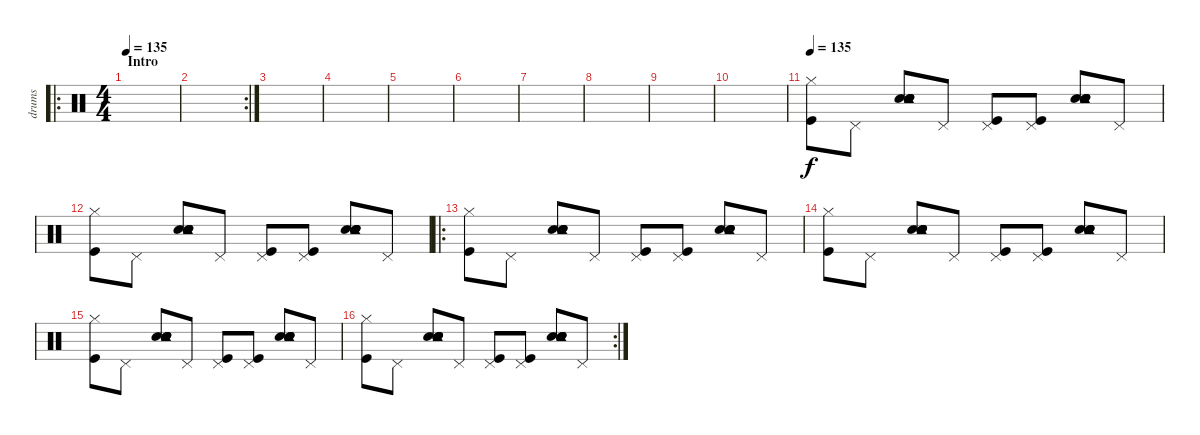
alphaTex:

\track ("drums" "drums") {instrument percussion}
\staff {score}
\articulation defaults
\ro
\ts (4 4)
\section ("" "Intro")
\tempo 135
\tempo 120
\tempo 135
\clef neutral
\ks c
|
\rc 2
|
|
|
|
|
|
|
|
|
\tempo 135
("Kick (hit)" "Hi-Hat (closed)").8{volume 6} "Pedal Hi-Hat (hit)".8 ("Snare (hit) 2" "Snare (hit) 2" "Electric Snare (hit)" "Electric Snare (hit)" "Tambourine (hit)").8 "Pedal Hi-Hat (hit)".8 ("Kick (hit)" "Pedal Hi-Hat (hit)").8 ("Kick (hit)" "Pedal Hi-Hat (hit)").8 ("Snare (hit) 2" "Snare (hit) 2" "Electric Snare (hit)" "Electric Snare (hit)" "Tambourine (hit)").8 "Pedal Hi-Hat (hit)".8 |
("Kick (hit)" "Hi-Hat (closed)").8 "Pedal Hi-Hat (hit)".8 ("Snare (hit) 2" "Snare (hit) 2" "Electric Snare (hit)" "Electric Snare (hit)" "Tambourine (hit)").8 "Pedal Hi-Hat (hit)".8 ("Kick (hit)" "Pedal Hi-Hat (hit)").8 ("Kick (hit)" "Pedal Hi-Hat (hit)").8 ("Snare (hit) 2" "Snare (hit) 2" "Electric Snare (hit)" "Electric Snare (hit)" "Tambourine (hit)").8 "Pedal Hi-Hat (hit)".8 |
\ro
("Kick (hit)" "Hi-Hat (closed)").8{volume 5} "Pedal Hi-Hat (hit)".8 ("Snare (hit) 2" "Snare (hit) 2" "Electric Snare (hit)" "Electric Snare (hit)" "Tambourine (hit)").8 "Pedal Hi-Hat (hit)".8 ("Kick (hit)" "Pedal Hi-Hat (hit)").8 ("Kick (hit)" "Pedal Hi-Hat (hit)").8 ("Snare (hit) 2" "Snare (hit) 2" "Electric Snare (hit)" "Electric Snare (hit)" "Tambourine (hit)").8 "Pedal Hi-Hat (hit)".8 |
("Kick (hit)" "Hi-Hat (closed)").8 "Pedal Hi-Hat (hit)".8 ("Snare (hit) 2" "Snare (hit) 2" "Electric Snare (hit)" "Electric Snare (hit)" "Tambourine (hit)").8 "Pedal Hi-Hat (hit)".8 ("Kick (hit)" "Pedal Hi-Hat (hit)").8 ("Kick (hit)" "Pedal Hi-Hat (hit)").8 ("Snare (hit) 2" "Snare (hit) 2" "Electric Snare (hit)" "Electric Snare (hit)" "Tambourine (hit)").8 "Pedal Hi-Hat (hit)".8 |
("Kick (hit)" "Hi-Hat (closed)").8 "Pedal Hi-Hat (hit)".8 ("Snare (hit) 2" "Snare (hit) 2" "Electric Snare (hit)" "Electric Snare (hit)" "Tambourine (hit)").8 "Pedal Hi-Hat (hit)".8 ("Kick (hit)" "Pedal Hi-Hat (hit)").8 ("Kick (hit)" "Pedal Hi-Hat (hit)").8 ("Snare (hit) 2" "Snare (hit) 2" "Electric Snare (hit)" "Electric Snare (hit)" "Tambourine (hit)").8 "Pedal Hi-Hat (hit)".8 |
\rc 2
("Kick (hit)" "Hi-Hat (closed)").8 "Pedal Hi-Hat (hit)".8 ("Snare (hit) 2" "Snare (hit) 2" "Electric Snare (hit)" "Electric Snare (hit)" "Tambourine (hit)").8 "Pedal Hi-Hat (hit)".8 ("Kick (hit)" "Pedal Hi-Hat (hit)").8 ("Kick (hit)" "Pedal Hi-Hat (hit)").8 ("Snare (hit) 2" "Snare (hit) 2" "Electric Snare (hit)" "Electric Snare (hit)" "Tambourine (hit)").8 "Pedal Hi-Hat (hit)".8
